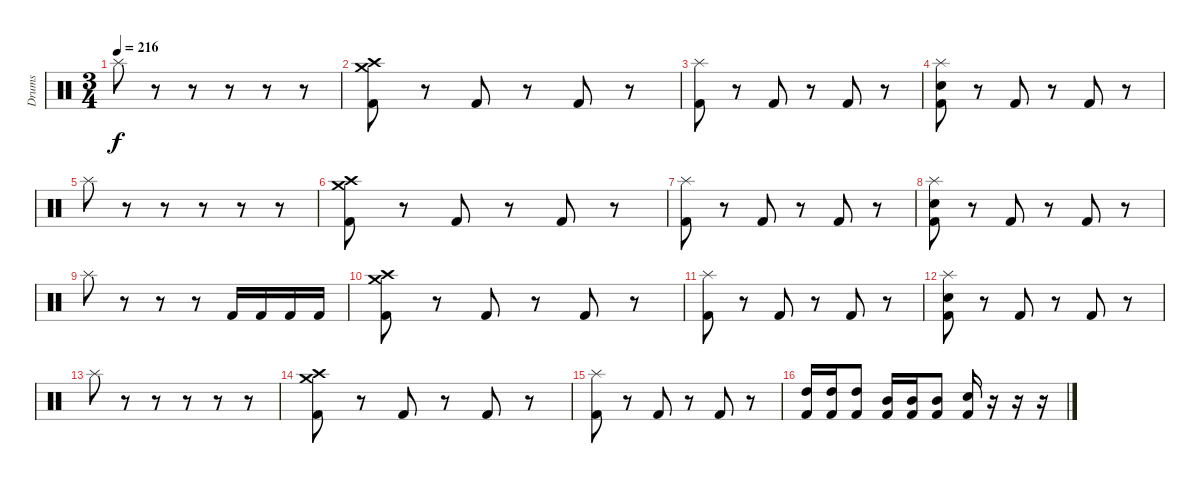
\track ("Drums" "Drums") {instrument percussion}
\staff {score}
\articulation defaults
\ts (3 4)
\tempo 216
\clef neutral
\ks c "Splash (hit)".8{dy f}
r.8 r.8 r.8 r.8 r.8 |
("Crash high (hit)" "Crash medium (hit)" "Kick (hit) 2").8 r.8 "Kick (hit) 2".8 r.8 "Kick (hit) 2".8 r.8 |
("Splash (hit)" "Kick (hit) 2").8 r.8 "Kick (hit) 2".8 r.8 "Kick (hit) 2".8 r.8 |
("Splash (hit)" "Electric Snare (hit)" "Kick (hit) 2").8 r.8 "Kick (hit) 2".8 r.8 "Kick (hit) 2".8 r.8 |
"Splash (hit)".8 r.8 r.8 r.8 r.8 r.8 |
("Crash high (hit)" "Crash medium (hit)" "Kick (hit) 2").8 r.8 "Kick (hit) 2".8 r.8 "Kick (hit) 2".8 r.8 |
("Splash (hit)" "Kick (hit) 2").8 r.8 "Kick (hit) 2".8 r.8 "Kick (hit) 2".8 r.8 |
("Splash (hit)" "Electric Snare (hit)" "Kick (hit) 2").8 r.8 "Kick (hit) 2".8 r.8 "Kick (hit) 2".8 r.8 |
"Splash (hit)".8 r.8 r.8 r.8 "Kick (hit) 2".16 "Kick (hit) 2".16 "Kick (hit) 2".16 "Kick (hit) 2".16 |
("Crash high (hit)" "Crash medium (hit)" "Kick (hit) 2").8 r.8 "Kick (hit) 2".8 r.8 "Kick (hit) 2".8 r.8 |
("Splash (hit)" "Kick (hit) 2").8 r.8 "Kick (hit) 2".8 r.8 "Kick (hit) 2".8 r.8 |
("Splash (hit)" "Electric Snare (hit)" "Kick (hit) 2").8 r.8 "Kick (hit) 2".8 r.8 "Kick (hit) 2".8 r.8 |
"Splash (hit)".8 r.8 r.8 r.8 r.8 r.8 |
("Crash high (hit)" "Crash medium (hit)" "Kick (hit) 2").8 r.8 "Kick (hit) 2".8 r.8 "Kick (hit) 2".8 r.8 |
("Splash (hit)" "Kick (hit) 2").8 r.8 "Kick (hit) 2".8 r.8 "Kick (hit) 2".8 r.8 |
("High Tom (hit)" "Kick (hit) 2").16 ("High Tom (hit)" "Kick (hit) 2").16 ("High Tom (hit)" "Kick (hit) 2").8 ("Mid Tom (hit)" "Kick (hit) 2").16 ("Mid Tom (hit)" "Kick (hit) 2").16 ("Mid Tom (hit)" "Kick (hit) 2").8 ("Electric Snare (hit)" "Kick (hit) 2").16 r.16 r.16 r.16
